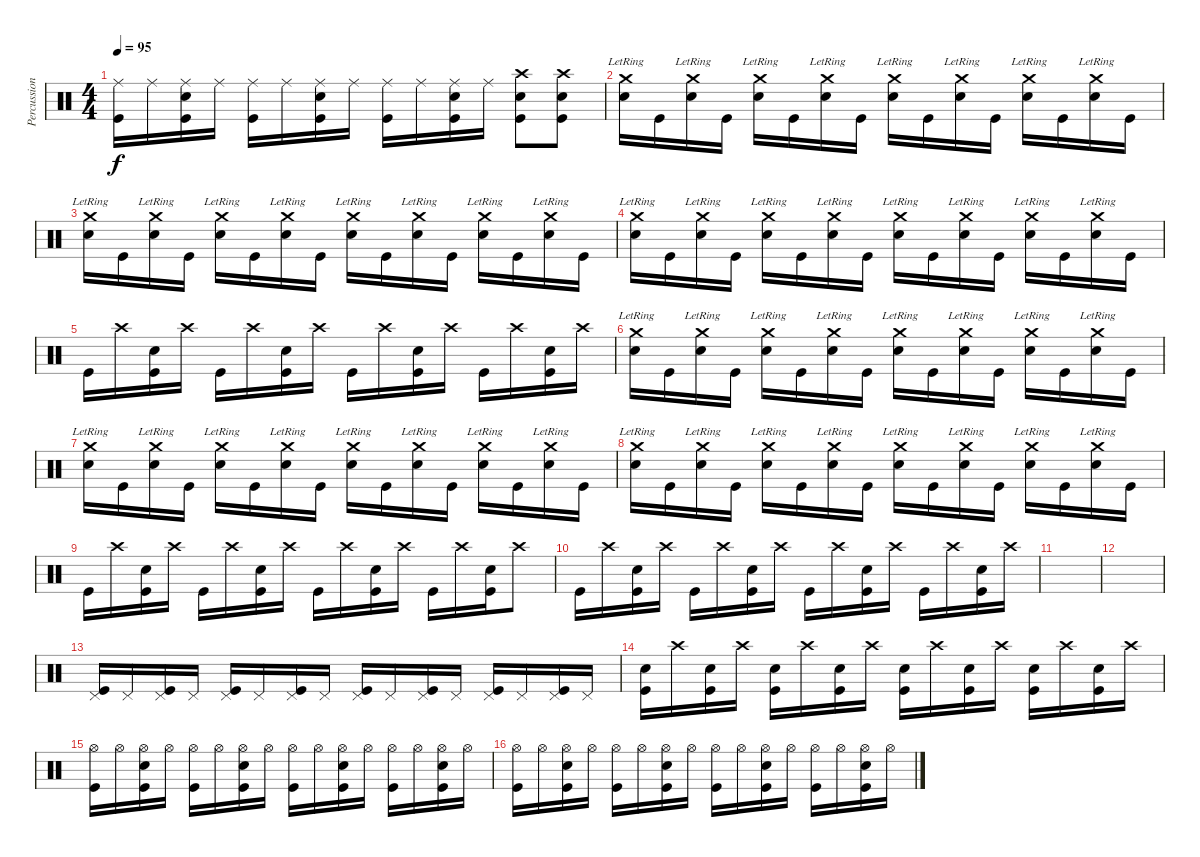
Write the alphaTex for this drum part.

\track ("Percussion" "Percussion") {instrument percussion}
\staff {score}
\articulation defaults
\ts (4 4)
\tempo 95
\clef neutral
\ks c
("Ride (middle)" "Kick (hit)").16{dy f} "Ride (middle)".16 ("Ride (middle)" "Snare (hit) 2" "Kick (hit)").16 "Ride (middle)".16 ("Ride (middle)" "Kick (hit)").16 "Ride (middle)".16 ("Ride (middle)" "Snare (hit) 2" "Kick (hit)").16 "Ride (middle)".16 ("Ride (middle)" "Kick (hit)").16 "Ride (middle)".16 ("Ride (middle)" "Snare (hit) 2" "Kick (hit)").16 "Ride (middle)".16 ("Crash high (hit)" "Snare (hit) 2" "Kick (hit)").8 ("Crash high (hit)" "Snare (hit) 2" "Kick (hit)").8 |
("Crash medium (hit)"{lr} "Snare (hit) 2").16 "Kick (hit)".16 ("Crash medium (hit)"{lr} "Snare (hit) 2").16 "Kick (hit)".16 ("Crash medium (hit)"{lr} "Snare (hit) 2").16 "Kick (hit)".16 ("Crash medium (hit)"{lr} "Snare (hit) 2").16 "Kick (hit)".16 ("Crash medium (hit)"{lr} "Snare (hit) 2").16 "Kick (hit)".16 ("Crash medium (hit)"{lr} "Snare (hit) 2").16 "Kick (hit)".16 ("Crash medium (hit)"{lr} "Snare (hit) 2").16 "Kick (hit)".16 ("Crash medium (hit)"{lr} "Snare (hit) 2").16 "Kick (hit)".16 |
("Crash medium (hit)"{lr} "Snare (hit) 2").16 "Kick (hit)".16 ("Crash medium (hit)"{lr} "Snare (hit) 2").16 "Kick (hit)".16 ("Crash medium (hit)"{lr} "Snare (hit) 2").16 "Kick (hit)".16 ("Crash medium (hit)"{lr} "Snare (hit) 2").16 "Kick (hit)".16 ("Crash medium (hit)"{lr} "Snare (hit) 2").16 "Kick (hit)".16 ("Crash medium (hit)"{lr} "Snare (hit) 2").16 "Kick (hit)".16 ("Crash medium (hit)"{lr} "Snare (hit) 2").16 "Kick (hit)".16 ("Crash medium (hit)"{lr} "Snare (hit) 2").16 "Kick (hit)".16 |
("Crash medium (hit)"{lr} "Snare (hit) 2").16 "Kick (hit)".16 ("Crash medium (hit)"{lr} "Snare (hit) 2").16 "Kick (hit)".16 ("Crash medium (hit)"{lr} "Snare (hit) 2").16 "Kick (hit)".16 ("Crash medium (hit)"{lr} "Snare (hit) 2").16 "Kick (hit)".16 ("Crash medium (hit)"{lr} "Snare (hit) 2").16 "Kick (hit)".16 ("Crash medium (hit)"{lr} "Snare (hit) 2").16 "Kick (hit)".16 ("Crash medium (hit)"{lr} "Snare (hit) 2").16 "Kick (hit)".16 ("Crash medium (hit)"{lr} "Snare (hit) 2").16 "Kick (hit)".16 |
"Kick (hit)".16 "Crash high (hit)".16 ("Snare (hit) 2" "Kick (hit)").16 "Crash high (hit)".16 "Kick (hit)".16 "Crash high (hit)".16 ("Snare (hit) 2" "Kick (hit)").16 "Crash high (hit)".16 "Kick (hit)".16 "Crash high (hit)".16 ("Snare (hit) 2" "Kick (hit)").16 "Crash high (hit)".16 "Kick (hit)".16 "Crash high (hit)".16 ("Snare (hit) 2" "Kick (hit)").16 "Crash high (hit)".16 |
("Crash medium (hit)"{lr} "Snare (hit) 2").16 "Kick (hit)".16 ("Crash medium (hit)"{lr} "Snare (hit) 2").16 "Kick (hit)".16 ("Crash medium (hit)"{lr} "Snare (hit) 2").16 "Kick (hit)".16 ("Crash medium (hit)"{lr} "Snare (hit) 2").16 "Kick (hit)".16 ("Crash medium (hit)"{lr} "Snare (hit) 2").16 "Kick (hit)".16 ("Crash medium (hit)"{lr} "Snare (hit) 2").16 "Kick (hit)".16 ("Crash medium (hit)"{lr} "Snare (hit) 2").16 "Kick (hit)".16 ("Crash medium (hit)"{lr} "Snare (hit) 2").16 "Kick (hit)".16 |
("Crash medium (hit)"{lr} "Snare (hit) 2").16 "Kick (hit)".16 ("Crash medium (hit)"{lr} "Snare (hit) 2").16 "Kick (hit)".16 ("Crash medium (hit)"{lr} "Snare (hit) 2").16 "Kick (hit)".16 ("Crash medium (hit)"{lr} "Snare (hit) 2").16 "Kick (hit)".16 ("Crash medium (hit)"{lr} "Snare (hit) 2").16 "Kick (hit)".16 ("Crash medium (hit)"{lr} "Snare (hit) 2").16 "Kick (hit)".16 ("Crash medium (hit)"{lr} "Snare (hit) 2").16 "Kick (hit)".16 ("Crash medium (hit)"{lr} "Snare (hit) 2").16 "Kick (hit)".16 |
("Crash medium (hit)"{lr} "Snare (hit) 2").16 "Kick (hit)".16 ("Crash medium (hit)"{lr} "Snare (hit) 2").16 "Kick (hit)".16 ("Crash medium (hit)"{lr} "Snare (hit) 2").16 "Kick (hit)".16 ("Crash medium (hit)"{lr} "Snare (hit) 2").16 "Kick (hit)".16 ("Crash medium (hit)"{lr} "Snare (hit) 2").16 "Kick (hit)".16 ("Crash medium (hit)"{lr} "Snare (hit) 2").16 "Kick (hit)".16 ("Crash medium (hit)"{lr} "Snare (hit) 2").16 "Kick (hit)".16 ("Crash medium (hit)"{lr} "Snare (hit) 2").16 "Kick (hit)".16 |
"Kick (hit)".16 "Crash high (hit)".16 ("Snare (hit) 2" "Kick (hit)").16 "Crash high (hit)".16 "Kick (hit)".16 "Crash high (hit)".16 ("Snare (hit) 2" "Kick (hit)").16 "Crash high (hit)".16 "Kick (hit)".16 "Crash high (hit)".16 ("Snare (hit) 2" "Kick (hit)").16 "Crash high (hit)".16 "Kick (hit)".16 "Crash high (hit)".16 ("Snare (hit) 2" "Kick (hit)").16 "Crash high (hit)".8 |
"Kick (hit)".16 "Crash high (hit)".16 ("Snare (hit) 2" "Kick (hit)").16 "Crash high (hit)".16 "Kick (hit)".16 "Crash high (hit)".16 ("Snare (hit) 2" "Kick (hit)").16 "Crash high (hit)".16 "Kick (hit)".16 "Crash high (hit)".16 ("Snare (hit) 2" "Kick (hit)").16 "Crash high (hit)".16 "Kick (hit)".16 "Crash high (hit)".16 ("Snare (hit) 2" "Kick (hit)").16 "Crash high (hit)".16 |
|
|
("Pedal Hi-Hat (hit)" "Kick (hit)").16 "Pedal Hi-Hat (hit)".16 ("Pedal Hi-Hat (hit)" "Kick (hit)").16 "Pedal Hi-Hat (hit)".16 ("Pedal Hi-Hat (hit)" "Kick (hit)").16 "Pedal Hi-Hat (hit)".16 ("Pedal Hi-Hat (hit)" "Kick (hit)").16 "Pedal Hi-Hat (hit)".16 ("Pedal Hi-Hat (hit)" "Kick (hit)").16 "Pedal Hi-Hat (hit)".16 ("Pedal Hi-Hat (hit)" "Kick (hit)").16 "Pedal Hi-Hat (hit)".16 ("Pedal Hi-Hat (hit)" "Kick (hit)").16 "Pedal Hi-Hat (hit)".16 ("Pedal Hi-Hat (hit)" "Kick (hit)").16 "Pedal Hi-Hat (hit)".16 |
("Kick (hit)" "Snare (hit) 2").16 "Crash high (hit)".16 ("Kick (hit)" "Snare (hit) 2").16 "Crash high (hit)".16 ("Kick (hit)" "Snare (hit) 2").16 "Crash high (hit)".16 ("Kick (hit)" "Snare (hit) 2").16 "Crash high (hit)".16 ("Kick (hit)" "Snare (hit) 2").16 "Crash high (hit)".16 ("Kick (hit)" "Snare (hit) 2").16 "Crash high (hit)".16 ("Kick (hit)" "Snare (hit) 2").16 "Crash high (hit)".16 ("Kick (hit)" "Snare (hit) 2").16 "Crash high (hit)".16 |
("Hi-Hat (open)" "Kick (hit)").16 "Hi-Hat (open)".16 ("Hi-Hat (open)" "Snare (hit) 2" "Kick (hit)").16 "Hi-Hat (open)".16 ("Hi-Hat (open)" "Kick (hit)").16 "Hi-Hat (open)".16 ("Hi-Hat (open)" "Snare (hit) 2" "Kick (hit)").16 "Hi-Hat (open)".16 ("Hi-Hat (open)" "Kick (hit)").16 "Hi-Hat (open)".16 ("Hi-Hat (open)" "Snare (hit) 2" "Kick (hit)").16 "Hi-Hat (open)".16 ("Hi-Hat (open)" "Kick (hit)").16 "Hi-Hat (open)".16 ("Hi-Hat (open)" "Snare (hit) 2" "Kick (hit)").16 "Hi-Hat (open)".16 |
("Hi-Hat (open)" "Kick (hit)").16 "Hi-Hat (open)".16 ("Hi-Hat (open)" "Snare (hit) 2" "Kick (hit)").16 "Hi-Hat (open)".16 ("Hi-Hat (open)" "Kick (hit)").16 "Hi-Hat (open)".16 ("Hi-Hat (open)" "Snare (hit) 2" "Kick (hit)").16 "Hi-Hat (open)".16 ("Hi-Hat (open)" "Kick (hit)").16 "Hi-Hat (open)".16 ("Hi-Hat (open)" "Snare (hit) 2" "Kick (hit)").16 "Hi-Hat (open)".16 ("Hi-Hat (open)" "Kick (hit)").16 "Hi-Hat (open)".16 ("Hi-Hat (open)" "Snare (hit) 2" "Kick (hit)").16 "Hi-Hat (open)".16
